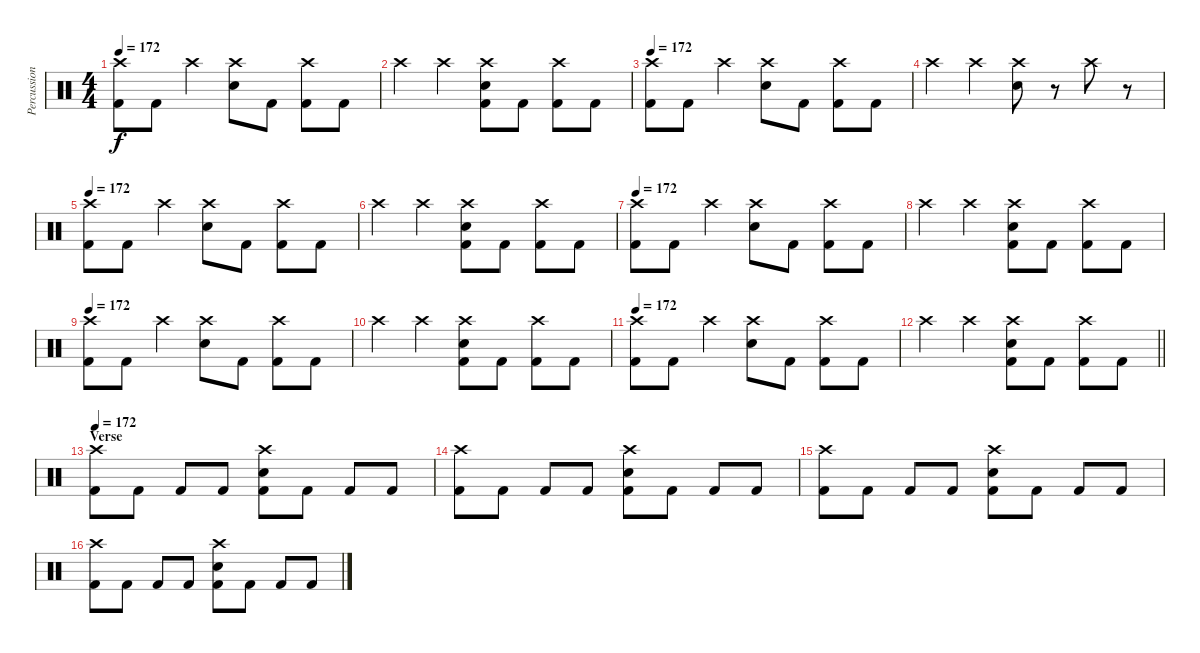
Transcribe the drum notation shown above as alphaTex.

\track ("Percussions" "Percussion") {instrument percussion}
\staff {score}
\articulation defaults
\ts (4 4)
\tempo 172
\clef neutral
\ks c
("Crash high (hit)" "Kick (hit) 2").8{dy f} "Kick (hit) 2".8 "Crash high (hit)".4 ("Crash high (hit)" "Electric Snare (hit)").8 "Kick (hit) 2".8 ("Crash high (hit)" "Kick (hit) 2").8 "Kick (hit) 2".8 |
"Crash high (hit)".4 "Crash high (hit)".4 ("Crash high (hit)" "Electric Snare (hit)" "Kick (hit) 2").8 "Kick (hit) 2".8 ("Crash high (hit)" "Kick (hit) 2").8 "Kick (hit) 2".8 |
\tempo 172
("Crash high (hit)" "Kick (hit) 2").8 "Kick (hit) 2".8 "Crash high (hit)".4 ("Crash high (hit)" "Electric Snare (hit)").8 "Kick (hit) 2".8 ("Crash high (hit)" "Kick (hit) 2").8 "Kick (hit) 2".8 |
"Crash high (hit)".4 "Crash high (hit)".4 ("Crash high (hit)" "Electric Snare (hit)").8 r.8 "Crash high (hit)".8 r.8 |
\tempo 172
("Crash high (hit)" "Kick (hit) 2").8 "Kick (hit) 2".8 "Crash high (hit)".4 ("Crash high (hit)" "Electric Snare (hit)").8 "Kick (hit) 2".8 ("Crash high (hit)" "Kick (hit) 2").8 "Kick (hit) 2".8 |
"Crash high (hit)".4 "Crash high (hit)".4 ("Crash high (hit)" "Electric Snare (hit)" "Kick (hit) 2").8 "Kick (hit) 2".8 ("Crash high (hit)" "Kick (hit) 2").8 "Kick (hit) 2".8 |
\tempo 172
("Crash high (hit)" "Kick (hit) 2").8 "Kick (hit) 2".8 "Crash high (hit)".4 ("Crash high (hit)" "Electric Snare (hit)").8 "Kick (hit) 2".8 ("Crash high (hit)" "Kick (hit) 2").8 "Kick (hit) 2".8 |
"Crash high (hit)".4 "Crash high (hit)".4 ("Crash high (hit)" "Electric Snare (hit)" "Kick (hit) 2").8 "Kick (hit) 2".8 ("Crash high (hit)" "Kick (hit) 2").8 "Kick (hit) 2".8 |
\tempo 172
("Crash high (hit)" "Kick (hit) 2").8 "Kick (hit) 2".8 "Crash high (hit)".4 ("Crash high (hit)" "Electric Snare (hit)").8 "Kick (hit) 2".8 ("Crash high (hit)" "Kick (hit) 2").8 "Kick (hit) 2".8 |
"Crash high (hit)".4 "Crash high (hit)".4 ("Crash high (hit)" "Electric Snare (hit)" "Kick (hit) 2").8 "Kick (hit) 2".8 ("Crash high (hit)" "Kick (hit) 2").8 "Kick (hit) 2".8 |
\tempo 172
("Crash high (hit)" "Kick (hit) 2").8 "Kick (hit) 2".8 "Crash high (hit)".4 ("Crash high (hit)" "Electric Snare (hit)").8 "Kick (hit) 2".8 ("Crash high (hit)" "Kick (hit) 2").8 "Kick (hit) 2".8 |
\barLineRight lightlight "Crash high (hit)".4 "Crash high (hit)".4
("Crash high (hit)" "Electric Snare (hit)" "Kick (hit) 2").8 "Kick (hit) 2".8 ("Crash high (hit)" "Kick (hit) 2").8 "Kick (hit) 2".8 |
\section ("" "Verse")
\tempo 172
("Crash high (hit)" "Kick (hit) 2").8 "Kick (hit) 2".8 "Kick (hit) 2".8 "Kick (hit) 2".8 ("Crash high (hit)" "Electric Snare (hit)" "Kick (hit) 2").8 "Kick (hit) 2".8 "Kick (hit) 2".8 "Kick (hit) 2".8 |
("Crash high (hit)" "Kick (hit) 2").8 "Kick (hit) 2".8 "Kick (hit) 2".8 "Kick (hit) 2".8 ("Crash high (hit)" "Electric Snare (hit)" "Kick (hit) 2").8 "Kick (hit) 2".8 "Kick (hit) 2".8 "Kick (hit) 2".8 |
("Crash high (hit)" "Kick (hit) 2").8 "Kick (hit) 2".8 "Kick (hit) 2".8 "Kick (hit) 2".8 ("Crash high (hit)" "Electric Snare (hit)" "Kick (hit) 2").8 "Kick (hit) 2".8 "Kick (hit) 2".8 "Kick (hit) 2".8 |
("Crash high (hit)" "Kick (hit) 2").8 "Kick (hit) 2".8 "Kick (hit) 2".8 "Kick (hit) 2".8 ("Crash high (hit)" "Electric Snare (hit)" "Kick (hit) 2").8 "Kick (hit) 2".8 "Kick (hit) 2".8 "Kick (hit) 2".8
